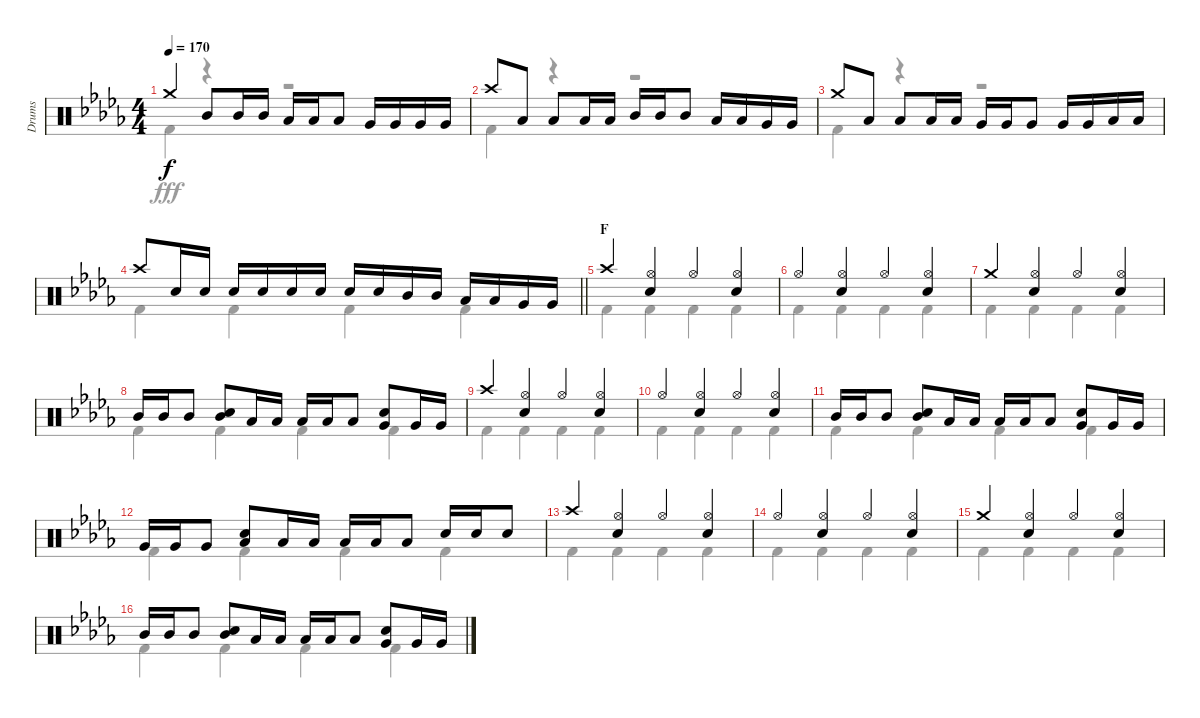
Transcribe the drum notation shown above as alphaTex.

\track ("Drums" "Drums") {instrument percussion}
\staff {score}
\articulation defaults
\voice
\ts (4 4)
\tempo 170
\clef neutral
\ks db "Crash medium (hit)".4{dy f} "Mid Tom (hit)".8 "Mid Tom (hit)".16 "Mid Tom (hit)".16 "Low Tom (hit)".16 "Low Tom (hit)".16 "Low Tom (hit)".8 "Very Low Tom (hit)".16 "Very Low Tom (hit)".16 "Very Low Tom (hit)".16 "Very Low Tom (hit)".16
|
"Crash high (hit)".8 "Low Tom (hit)".8 "Low Tom (hit)".8 "Low Tom (hit)".16 "Low Tom (hit)".16 "Mid Tom (hit)".16 "Mid Tom (hit)".16 "Mid Tom (hit)".8 "Low Tom (hit)".16 "Low Tom (hit)".16 "Very Low Tom (hit)".16 "Very Low Tom (hit)".16 |
"Crash medium (hit)".8 "Low Tom (hit)".8 "Low Tom (hit)".8 "Low Tom (hit)".16 "Low Tom (hit)".16 "Very Low Tom (hit)".16 "Very Low Tom (hit)".16 "Very Low Tom (hit)".8 "Very Low Tom (hit)".16 "Very Low Tom (hit)".16 "Low Tom (hit)".16 "Low Tom (hit)".16 |
\barLineRight lightlight "Crash high (hit)".8 "Snare (hit) 2".16 "Snare (hit) 2".16 "Snare (hit) 2".16 "Snare (hit) 2".16 "Snare (hit) 2".16 "Snare (hit) 2".16 "Snare (hit) 2".16 "Snare (hit) 2".16 "Mid Tom (hit)".16 "Mid Tom (hit)".16 "Low Tom (hit)".16 "Low Tom (hit)".16 "Very Low Tom (hit)".16 "Very Low Tom (hit)".16
|
\section ("" "F")
"Crash high (hit)".4 ("Hi-Hat (open)" "Snare (hit) 2").4 "Hi-Hat (open)".4 ("Hi-Hat (open)" "Snare (hit) 2").4 |
"Hi-Hat (open)".4 ("Hi-Hat (open)" "Snare (hit) 2").4 "Hi-Hat (open)".4 ("Hi-Hat (open)" "Snare (hit) 2").4 |
"Crash medium (hit)".4 ("Hi-Hat (open)" "Snare (hit) 2").4 "Hi-Hat (open)".4 ("Hi-Hat (open)" "Snare (hit) 2").4 |
"Mid Tom (hit)".16 "Mid Tom (hit)".16 "Mid Tom (hit)".8 ("Mid Tom (hit)" "Snare (hit) 2").8 "Low Tom (hit)".16 "Low Tom (hit)".16 "Low Tom (hit)".16 "Low Tom (hit)".16 "Low Tom (hit)".8 ("Snare (hit) 2" "Very Low Tom (hit)").8 "Very Low Tom (hit)".16 "Very Low Tom (hit)".16 |
"Crash high (hit)".4 ("Hi-Hat (open)" "Snare (hit) 2").4 "Hi-Hat (open)".4 ("Hi-Hat (open)" "Snare (hit) 2").4 |
"Hi-Hat (open)".4 ("Hi-Hat (open)" "Snare (hit) 2").4 "Hi-Hat (open)".4 ("Hi-Hat (open)" "Snare (hit) 2").4 |
"Mid Tom (hit)".16 "Mid Tom (hit)".16 "Mid Tom (hit)".8 ("Mid Tom (hit)" "Snare (hit) 2").8 "Low Tom (hit)".16 "Low Tom (hit)".16 "Low Tom (hit)".16 "Low Tom (hit)".16 "Low Tom (hit)".8 ("Snare (hit) 2" "Very Low Tom (hit)").8 "Very Low Tom (hit)".16 "Very Low Tom (hit)".16 |
"Very Low Tom (hit)".16 "Very Low Tom (hit)".16 "Very Low Tom (hit)".8 ("Snare (hit) 2" "Low Tom (hit)").8 "Low Tom (hit)".16 "Low Tom (hit)".16 "Low Tom (hit)".16 "Low Tom (hit)".16 "Low Tom (hit)".8 "Snare (hit) 2".16 "Snare (hit) 2".16 "Snare (hit) 2".8 |
"Crash high (hit)".4 ("Hi-Hat (open)" "Snare (hit) 2").4 "Hi-Hat (open)".4 ("Hi-Hat (open)" "Snare (hit) 2").4 |
"Hi-Hat (open)".4 ("Hi-Hat (open)" "Snare (hit) 2").4 "Hi-Hat (open)".4 ("Hi-Hat (open)" "Snare (hit) 2").4 |
"Crash medium (hit)".4 ("Hi-Hat (open)" "Snare (hit) 2").4 "Hi-Hat (open)".4 ("Hi-Hat (open)" "Snare (hit) 2").4 |
"Mid Tom (hit)".16 "Mid Tom (hit)".16 "Mid Tom (hit)".8 ("Mid Tom (hit)" "Snare (hit) 2").8 "Low Tom (hit)".16 "Low Tom (hit)".16 "Low Tom (hit)".16 "Low Tom (hit)".16 "Low Tom (hit)".8 ("Snare (hit) 2" "Very Low Tom (hit)").8 "Very Low Tom (hit)".16 "Very Low Tom (hit)".16
\voice
\clef neutral
\ottava regular
\simile none
\ks db "Kick (hit) 2".4{dy fff}
r.4 r.2 |
"Kick (hit) 2".4 r.4 r.2 |
"Kick (hit) 2".4 r.4 r.2 |
\barLineRight lightlight "Kick (hit) 2".4 "Kick (hit) 2".4 "Kick (hit) 2".4 "Kick (hit) 2".4
|
"Kick (hit) 2".4 "Kick (hit) 2".4 "Kick (hit) 2".4 "Kick (hit) 2".4 |
"Kick (hit) 2".4 "Kick (hit) 2".4 "Kick (hit) 2".4 "Kick (hit) 2".4 |
"Kick (hit) 2".4 "Kick (hit) 2".4 "Kick (hit) 2".4 "Kick (hit) 2".4 |
"Kick (hit) 2".4 "Kick (hit) 2".4 "Kick (hit) 2".4 "Kick (hit) 2".4 |
"Kick (hit) 2".4 "Kick (hit) 2".4 "Kick (hit) 2".4 "Kick (hit) 2".4 |
"Kick (hit) 2".4 "Kick (hit) 2".4 "Kick (hit) 2".4 "Kick (hit) 2".4 |
"Kick (hit) 2".4 "Kick (hit) 2".4 "Kick (hit) 2".4 "Kick (hit) 2".4 |
"Kick (hit) 2".4 "Kick (hit) 2".4 "Kick (hit) 2".4 "Kick (hit) 2".4 |
"Kick (hit) 2".4 "Kick (hit) 2".4 "Kick (hit) 2".4 "Kick (hit) 2".4 |
"Kick (hit) 2".4 "Kick (hit) 2".4 "Kick (hit) 2".4 "Kick (hit) 2".4 |
"Kick (hit) 2".4 "Kick (hit) 2".4 "Kick (hit) 2".4 "Kick (hit) 2".4 |
"Kick (hit) 2".4 "Kick (hit) 2".4 "Kick (hit) 2".4 "Kick (hit) 2".4
